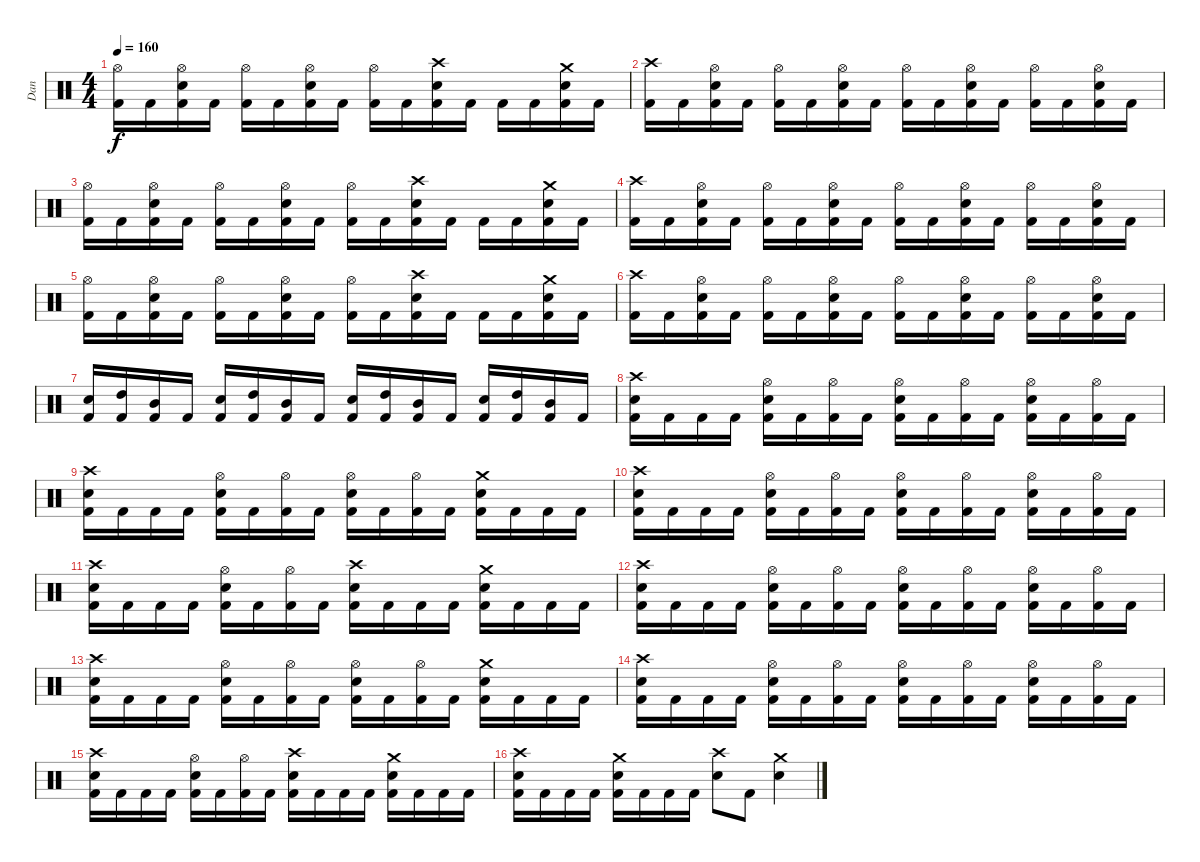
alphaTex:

\track ("Dan " "Dan ") {instrument percussion}
\staff {score}
\articulation defaults
\ts (4 4)
\tempo 160
\clef neutral
\ks c
("Kick (hit) 2" "Hi-Hat (open)").16{dy f} "Kick (hit) 2".16 ("Metronome (bell)" "Kick (hit) 2" "Hi-Hat (open)").16 "Kick (hit) 2".16 ("Kick (hit) 2" "Hi-Hat (open)").16 "Kick (hit) 2".16 ("Metronome (bell)" "Kick (hit) 2" "Hi-Hat (open)").16 "Kick (hit) 2".16 ("Kick (hit) 2" "Hi-Hat (open)").16 "Kick (hit) 2".16 ("Metronome (bell)" "Kick (hit) 2" "Crash high (hit)").16 "Kick (hit) 2".16 "Kick (hit) 2".16 "Kick (hit) 2".16 ("Metronome (bell)" "Kick (hit) 2" "Crash medium (hit)").16 "Kick (hit) 2".16 |
("Kick (hit) 2" "Crash high (hit)").16 "Kick (hit) 2".16 ("Metronome (bell)" "Kick (hit) 2" "Hi-Hat (open)").16 "Kick (hit) 2".16 ("Kick (hit) 2" "Hi-Hat (open)").16 "Kick (hit) 2".16 ("Metronome (bell)" "Kick (hit) 2" "Hi-Hat (open)").16 "Kick (hit) 2".16 ("Kick (hit) 2" "Hi-Hat (open)").16 "Kick (hit) 2".16 ("Metronome (bell)" "Kick (hit) 2" "Hi-Hat (open)").16 "Kick (hit) 2".16 ("Kick (hit) 2" "Hi-Hat (open)").16 "Kick (hit) 2".16 ("Metronome (bell)" "Kick (hit) 2" "Hi-Hat (open)").16 "Kick (hit) 2".16 |
("Kick (hit) 2" "Hi-Hat (open)").16 "Kick (hit) 2".16 ("Metronome (bell)" "Kick (hit) 2" "Hi-Hat (open)").16 "Kick (hit) 2".16 ("Kick (hit) 2" "Hi-Hat (open)").16 "Kick (hit) 2".16 ("Metronome (bell)" "Kick (hit) 2" "Hi-Hat (open)").16 "Kick (hit) 2".16 ("Kick (hit) 2" "Hi-Hat (open)").16 "Kick (hit) 2".16 ("Metronome (bell)" "Kick (hit) 2" "Crash high (hit)").16 "Kick (hit) 2".16 "Kick (hit) 2".16 "Kick (hit) 2".16 ("Metronome (bell)" "Kick (hit) 2" "Crash medium (hit)").16 "Kick (hit) 2".16 |
("Kick (hit) 2" "Crash high (hit)").16 "Kick (hit) 2".16 ("Metronome (bell)" "Kick (hit) 2" "Hi-Hat (open)").16 "Kick (hit) 2".16 ("Kick (hit) 2" "Hi-Hat (open)").16 "Kick (hit) 2".16 ("Metronome (bell)" "Kick (hit) 2" "Hi-Hat (open)").16 "Kick (hit) 2".16 ("Kick (hit) 2" "Hi-Hat (open)").16 "Kick (hit) 2".16 ("Metronome (bell)" "Kick (hit) 2" "Hi-Hat (open)").16 "Kick (hit) 2".16 ("Kick (hit) 2" "Hi-Hat (open)").16 "Kick (hit) 2".16 ("Metronome (bell)" "Kick (hit) 2" "Hi-Hat (open)").16 "Kick (hit) 2".16 |
("Kick (hit) 2" "Hi-Hat (open)").16 "Kick (hit) 2".16 ("Metronome (bell)" "Kick (hit) 2" "Hi-Hat (open)").16 "Kick (hit) 2".16 ("Kick (hit) 2" "Hi-Hat (open)").16 "Kick (hit) 2".16 ("Metronome (bell)" "Kick (hit) 2" "Hi-Hat (open)").16 "Kick (hit) 2".16 ("Kick (hit) 2" "Hi-Hat (open)").16 "Kick (hit) 2".16 ("Metronome (bell)" "Kick (hit) 2" "Crash high (hit)").16 "Kick (hit) 2".16 "Kick (hit) 2".16 "Kick (hit) 2".16 ("Metronome (bell)" "Kick (hit) 2" "Crash medium (hit)").16 "Kick (hit) 2".16 |
("Kick (hit) 2" "Crash high (hit)").16 "Kick (hit) 2".16 ("Metronome (bell)" "Kick (hit) 2" "Hi-Hat (open)").16 "Kick (hit) 2".16 ("Kick (hit) 2" "Hi-Hat (open)").16 "Kick (hit) 2".16 ("Metronome (bell)" "Kick (hit) 2" "Hi-Hat (open)").16 "Kick (hit) 2".16 ("Kick (hit) 2" "Hi-Hat (open)").16 "Kick (hit) 2".16 ("Metronome (bell)" "Kick (hit) 2" "Hi-Hat (open)").16 "Kick (hit) 2".16 ("Kick (hit) 2" "Hi-Hat (open)").16 "Kick (hit) 2".16 ("Metronome (bell)" "Kick (hit) 2" "Hi-Hat (open)").16 "Kick (hit) 2".16 |
("Metronome (bell)" "Kick (hit) 2").16 ("Kick (hit) 2" "High Tom (hit)").16 ("Kick (hit) 2" "Mid Tom (hit)").16 "Kick (hit) 2".16 ("Metronome (bell)" "Kick (hit) 2").16 ("Kick (hit) 2" "High Tom (hit)").16 ("Kick (hit) 2" "Mid Tom (hit)").16 "Kick (hit) 2".16 ("Metronome (bell)" "Kick (hit) 2").16 ("Kick (hit) 2" "High Tom (hit)").16 ("Kick (hit) 2" "Mid Tom (hit)").16 "Kick (hit) 2".16 ("Metronome (bell)" "Kick (hit) 2").16 ("Kick (hit) 2" "High Tom (hit)").16 ("Kick (hit) 2" "Mid Tom (hit)").16 "Kick (hit) 2".16 |
("Metronome (bell)" "Kick (hit) 2" "Crash high (hit)").16 "Kick (hit) 2".16 "Kick (hit) 2".16 "Kick (hit) 2".16 ("Metronome (bell)" "Kick (hit) 2" "Hi-Hat (open)").16 "Kick (hit) 2".16 ("Kick (hit) 2" "Hi-Hat (open)").16 "Kick (hit) 2".16 ("Metronome (bell)" "Kick (hit) 2" "Hi-Hat (open)").16 "Kick (hit) 2".16 ("Kick (hit) 2" "Hi-Hat (open)").16 "Kick (hit) 2".16 ("Metronome (bell)" "Kick (hit) 2" "Hi-Hat (open)").16 "Kick (hit) 2".16 ("Kick (hit) 2" "Hi-Hat (open)").16 "Kick (hit) 2".16 |
("Metronome (bell)" "Kick (hit) 2" "Crash high (hit)").16 "Kick (hit) 2".16 "Kick (hit) 2".16 "Kick (hit) 2".16 ("Metronome (bell)" "Kick (hit) 2" "Hi-Hat (open)").16 "Kick (hit) 2".16 ("Kick (hit) 2" "Hi-Hat (open)").16 "Kick (hit) 2".16 ("Metronome (bell)" "Kick (hit) 2" "Hi-Hat (open)").16 "Kick (hit) 2".16 ("Kick (hit) 2" "Hi-Hat (open)").16 "Kick (hit) 2".16 ("Metronome (bell)" "Kick (hit) 2" "Crash medium (hit)").16 "Kick (hit) 2".16 "Kick (hit) 2".16 "Kick (hit) 2".16 |
("Metronome (bell)" "Kick (hit) 2" "Crash high (hit)").16 "Kick (hit) 2".16 "Kick (hit) 2".16 "Kick (hit) 2".16 ("Metronome (bell)" "Kick (hit) 2" "Hi-Hat (open)").16 "Kick (hit) 2".16 ("Kick (hit) 2" "Hi-Hat (open)").16 "Kick (hit) 2".16 ("Metronome (bell)" "Kick (hit) 2" "Hi-Hat (open)").16 "Kick (hit) 2".16 ("Kick (hit) 2" "Hi-Hat (open)").16 "Kick (hit) 2".16 ("Metronome (bell)" "Kick (hit) 2" "Hi-Hat (open)").16 "Kick (hit) 2".16 ("Kick (hit) 2" "Hi-Hat (open)").16 "Kick (hit) 2".16 |
("Metronome (bell)" "Kick (hit) 2" "Crash high (hit)").16 "Kick (hit) 2".16 "Kick (hit) 2".16 "Kick (hit) 2".16 ("Metronome (bell)" "Kick (hit) 2" "Hi-Hat (open)").16 "Kick (hit) 2".16 ("Kick (hit) 2" "Hi-Hat (open)").16 "Kick (hit) 2".16 ("Metronome (bell)" "Kick (hit) 2" "Crash high (hit)").16 "Kick (hit) 2".16 "Kick (hit) 2".16 "Kick (hit) 2".16 ("Metronome (bell)" "Kick (hit) 2" "Crash medium (hit)").16 "Kick (hit) 2".16 "Kick (hit) 2".16 "Kick (hit) 2".16 |
("Metronome (bell)" "Kick (hit) 2" "Crash high (hit)").16 "Kick (hit) 2".16 "Kick (hit) 2".16 "Kick (hit) 2".16 ("Metronome (bell)" "Kick (hit) 2" "Hi-Hat (open)").16 "Kick (hit) 2".16 ("Kick (hit) 2" "Hi-Hat (open)").16 "Kick (hit) 2".16 ("Metronome (bell)" "Kick (hit) 2" "Hi-Hat (open)").16 "Kick (hit) 2".16 ("Kick (hit) 2" "Hi-Hat (open)").16 "Kick (hit) 2".16 ("Metronome (bell)" "Kick (hit) 2" "Hi-Hat (open)").16 "Kick (hit) 2".16 ("Kick (hit) 2" "Hi-Hat (open)").16 "Kick (hit) 2".16 |
("Metronome (bell)" "Kick (hit) 2" "Crash high (hit)").16 "Kick (hit) 2".16 "Kick (hit) 2".16 "Kick (hit) 2".16 ("Metronome (bell)" "Kick (hit) 2" "Hi-Hat (open)").16 "Kick (hit) 2".16 ("Kick (hit) 2" "Hi-Hat (open)").16 "Kick (hit) 2".16 ("Metronome (bell)" "Kick (hit) 2" "Hi-Hat (open)").16 "Kick (hit) 2".16 ("Kick (hit) 2" "Hi-Hat (open)").16 "Kick (hit) 2".16 ("Metronome (bell)" "Kick (hit) 2" "Crash medium (hit)").16 "Kick (hit) 2".16 "Kick (hit) 2".16 "Kick (hit) 2".16 |
("Metronome (bell)" "Kick (hit) 2" "Crash high (hit)").16 "Kick (hit) 2".16 "Kick (hit) 2".16 "Kick (hit) 2".16 ("Metronome (bell)" "Kick (hit) 2" "Hi-Hat (open)").16 "Kick (hit) 2".16 ("Kick (hit) 2" "Hi-Hat (open)").16 "Kick (hit) 2".16 ("Metronome (bell)" "Kick (hit) 2" "Hi-Hat (open)").16 "Kick (hit) 2".16 ("Kick (hit) 2" "Hi-Hat (open)").16 "Kick (hit) 2".16 ("Metronome (bell)" "Kick (hit) 2" "Hi-Hat (open)").16 "Kick (hit) 2".16 ("Kick (hit) 2" "Hi-Hat (open)").16 "Kick (hit) 2".16 |
("Metronome (bell)" "Kick (hit) 2" "Crash high (hit)").16 "Kick (hit) 2".16 "Kick (hit) 2".16 "Kick (hit) 2".16 ("Metronome (bell)" "Kick (hit) 2" "Hi-Hat (open)").16 "Kick (hit) 2".16 ("Kick (hit) 2" "Hi-Hat (open)").16 "Kick (hit) 2".16 ("Metronome (bell)" "Kick (hit) 2" "Crash high (hit)").16 "Kick (hit) 2".16 "Kick (hit) 2".16 "Kick (hit) 2".16 ("Metronome (bell)" "Kick (hit) 2" "Crash medium (hit)").16 "Kick (hit) 2".16 "Kick (hit) 2".16 "Kick (hit) 2".16 |
("Metronome (bell)" "Kick (hit) 2" "Crash high (hit)").16 "Kick (hit) 2".16 "Kick (hit) 2".16 "Kick (hit) 2".16 ("Metronome (bell)" "Kick (hit) 2" "Crash medium (hit)").16 "Kick (hit) 2".16 "Kick (hit) 2".16 "Kick (hit) 2".16 ("Metronome (bell)" "Crash high (hit)").8 "Kick (hit) 2".8 ("Metronome (bell)" "Crash medium (hit)").4
